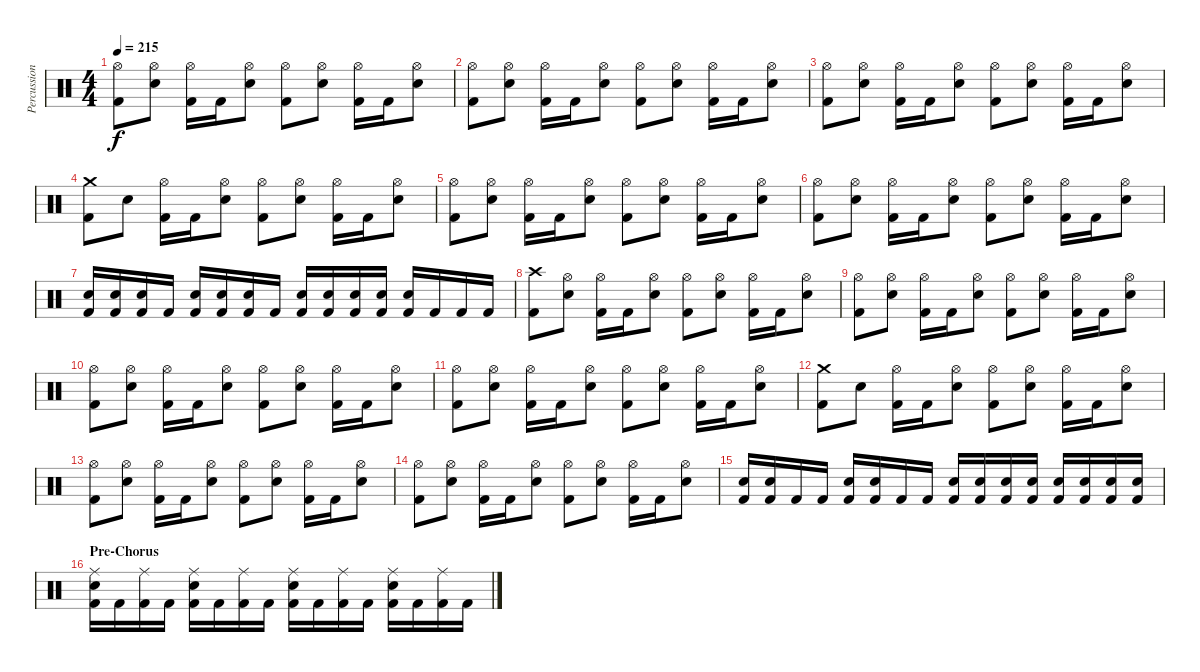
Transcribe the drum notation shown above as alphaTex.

\track ("Percussion" "Percussion") {instrument percussion}
\staff {score}
\articulation defaults
\ts (4 4)
\tempo 215
\clef neutral
\ks c
("Hi-Hat (open)" "Kick (hit) 2").8{dy f} ("Hi-Hat (open)" "Snare (hit) 2").8 ("Hi-Hat (open)" "Kick (hit) 2").16 "Kick (hit) 2".16 ("Hi-Hat (open)" "Snare (hit) 2").8 ("Hi-Hat (open)" "Kick (hit) 2").8 ("Hi-Hat (open)" "Snare (hit) 2").8 ("Hi-Hat (open)" "Kick (hit) 2").16 "Kick (hit) 2".16 ("Hi-Hat (open)" "Snare (hit) 2").8 |
("Hi-Hat (open)" "Kick (hit) 2").8 ("Hi-Hat (open)" "Snare (hit) 2").8 ("Hi-Hat (open)" "Kick (hit) 2").16 "Kick (hit) 2".16 ("Hi-Hat (open)" "Snare (hit) 2").8 ("Hi-Hat (open)" "Kick (hit) 2").8 ("Hi-Hat (open)" "Snare (hit) 2").8 ("Hi-Hat (open)" "Kick (hit) 2").16 "Kick (hit) 2".16 ("Hi-Hat (open)" "Snare (hit) 2").8 |
("Hi-Hat (open)" "Kick (hit) 2").8 ("Hi-Hat (open)" "Snare (hit) 2").8 ("Hi-Hat (open)" "Kick (hit) 2").16 "Kick (hit) 2".16 ("Hi-Hat (open)" "Snare (hit) 2").8 ("Hi-Hat (open)" "Kick (hit) 2").8 ("Hi-Hat (open)" "Snare (hit) 2").8 ("Hi-Hat (open)" "Kick (hit) 2").16 "Kick (hit) 2".16 ("Hi-Hat (open)" "Snare (hit) 2").8 |
("Crash medium (hit)" "Kick (hit) 2").8 "Snare (hit) 2".8 ("Hi-Hat (open)" "Kick (hit) 2").16 "Kick (hit) 2".16 ("Hi-Hat (open)" "Snare (hit) 2").8 ("Hi-Hat (open)" "Kick (hit) 2").8 ("Hi-Hat (open)" "Snare (hit) 2").8 ("Hi-Hat (open)" "Kick (hit) 2").16 "Kick (hit) 2".16 ("Hi-Hat (open)" "Snare (hit) 2").8 |
("Hi-Hat (open)" "Kick (hit) 2").8 ("Hi-Hat (open)" "Snare (hit) 2").8 ("Hi-Hat (open)" "Kick (hit) 2").16 "Kick (hit) 2".16 ("Hi-Hat (open)" "Snare (hit) 2").8 ("Hi-Hat (open)" "Kick (hit) 2").8 ("Hi-Hat (open)" "Snare (hit) 2").8 ("Hi-Hat (open)" "Kick (hit) 2").16 "Kick (hit) 2".16 ("Hi-Hat (open)" "Snare (hit) 2").8 |
("Hi-Hat (open)" "Kick (hit) 2").8 ("Hi-Hat (open)" "Snare (hit) 2").8 ("Hi-Hat (open)" "Kick (hit) 2").16 "Kick (hit) 2".16 ("Hi-Hat (open)" "Snare (hit) 2").8 ("Hi-Hat (open)" "Kick (hit) 2").8 ("Hi-Hat (open)" "Snare (hit) 2").8 ("Hi-Hat (open)" "Kick (hit) 2").16 "Kick (hit) 2".16 ("Hi-Hat (open)" "Snare (hit) 2").8 |
("Snare (hit) 2" "Kick (hit) 2").16 ("Snare (hit) 2" "Kick (hit) 2").16 ("Snare (hit) 2" "Kick (hit) 2").16 "Kick (hit) 2".16 ("Snare (hit) 2" "Kick (hit) 2").16 ("Snare (hit) 2" "Kick (hit) 2").16 ("Snare (hit) 2" "Kick (hit) 2").16 "Kick (hit) 2".16 ("Snare (hit) 2" "Kick (hit) 2").16 ("Snare (hit) 2" "Kick (hit) 2").16 ("Snare (hit) 2" "Kick (hit) 2").16 ("Snare (hit) 2" "Kick (hit) 2").16 ("Snare (hit) 2" "Kick (hit) 2").16 "Kick (hit) 2".16 "Kick (hit) 2".16 "Kick (hit) 2".16 |
("Crash high (hit)" "Kick (hit) 2").8 ("Hi-Hat (open)" "Snare (hit) 2").8 ("Hi-Hat (open)" "Kick (hit) 2").16 "Kick (hit) 2".16 ("Hi-Hat (open)" "Snare (hit) 2").8 ("Hi-Hat (open)" "Kick (hit) 2").8 ("Hi-Hat (open)" "Snare (hit) 2").8 ("Hi-Hat (open)" "Kick (hit) 2").16 "Kick (hit) 2".16 ("Hi-Hat (open)" "Snare (hit) 2").8 |
("Hi-Hat (open)" "Kick (hit) 2").8 ("Hi-Hat (open)" "Snare (hit) 2").8 ("Hi-Hat (open)" "Kick (hit) 2").16 "Kick (hit) 2".16 ("Hi-Hat (open)" "Snare (hit) 2").8 ("Hi-Hat (open)" "Kick (hit) 2").8 ("Hi-Hat (open)" "Snare (hit) 2").8 ("Hi-Hat (open)" "Kick (hit) 2").16 "Kick (hit) 2".16 ("Hi-Hat (open)" "Snare (hit) 2").8 |
("Hi-Hat (open)" "Kick (hit) 2").8 ("Hi-Hat (open)" "Snare (hit) 2").8 ("Hi-Hat (open)" "Kick (hit) 2").16 "Kick (hit) 2".16 ("Hi-Hat (open)" "Snare (hit) 2").8 ("Hi-Hat (open)" "Kick (hit) 2").8 ("Hi-Hat (open)" "Snare (hit) 2").8 ("Hi-Hat (open)" "Kick (hit) 2").16 "Kick (hit) 2".16 ("Hi-Hat (open)" "Snare (hit) 2").8 |
("Hi-Hat (open)" "Kick (hit) 2").8 ("Hi-Hat (open)" "Snare (hit) 2").8 ("Hi-Hat (open)" "Kick (hit) 2").16 "Kick (hit) 2".16 ("Hi-Hat (open)" "Snare (hit) 2").8 ("Hi-Hat (open)" "Kick (hit) 2").8 ("Hi-Hat (open)" "Snare (hit) 2").8 ("Hi-Hat (open)" "Kick (hit) 2").16 "Kick (hit) 2".16 ("Hi-Hat (open)" "Snare (hit) 2").8 |
("Crash medium (hit)" "Kick (hit) 2").8 "Snare (hit) 2".8 ("Hi-Hat (open)" "Kick (hit) 2").16 "Kick (hit) 2".16 ("Hi-Hat (open)" "Snare (hit) 2").8 ("Hi-Hat (open)" "Kick (hit) 2").8 ("Hi-Hat (open)" "Snare (hit) 2").8 ("Hi-Hat (open)" "Kick (hit) 2").16 "Kick (hit) 2".16 ("Hi-Hat (open)" "Snare (hit) 2").8 |
("Hi-Hat (open)" "Kick (hit) 2").8 ("Hi-Hat (open)" "Snare (hit) 2").8 ("Hi-Hat (open)" "Kick (hit) 2").16 "Kick (hit) 2".16 ("Hi-Hat (open)" "Snare (hit) 2").8 ("Hi-Hat (open)" "Kick (hit) 2").8 ("Hi-Hat (open)" "Snare (hit) 2").8 ("Hi-Hat (open)" "Kick (hit) 2").16 "Kick (hit) 2".16 ("Hi-Hat (open)" "Snare (hit) 2").8 |
("Hi-Hat (open)" "Kick (hit) 2").8 ("Hi-Hat (open)" "Snare (hit) 2").8 ("Hi-Hat (open)" "Kick (hit) 2").16 "Kick (hit) 2".16 ("Hi-Hat (open)" "Snare (hit) 2").8 ("Hi-Hat (open)" "Kick (hit) 2").8 ("Hi-Hat (open)" "Snare (hit) 2").8 ("Hi-Hat (open)" "Kick (hit) 2").16 "Kick (hit) 2".16 ("Hi-Hat (open)" "Snare (hit) 2").8 |
("Snare (hit) 2" "Kick (hit) 2").16 ("Snare (hit) 2" "Kick (hit) 2").16 "Kick (hit) 2".16 "Kick (hit) 2".16 ("Snare (hit) 2" "Kick (hit) 2").16 ("Snare (hit) 2" "Kick (hit) 2").16 "Kick (hit) 2".16 "Kick (hit) 2".16 ("Snare (hit) 2" "Kick (hit) 2").16 ("Snare (hit) 2" "Kick (hit) 2").16 ("Snare (hit) 2" "Kick (hit) 2").16 ("Snare (hit) 2" "Kick (hit) 2").16 ("Snare (hit) 2" "Kick (hit) 2").16 ("Snare (hit) 2" "Kick (hit) 2").16 ("Snare (hit) 2" "Kick (hit) 2").16 ("Snare (hit) 2" "Kick (hit) 2").16 |
\section ("" "Pre-Chorus")
("Ride (middle)" "Snare (hit) 2" "Kick (hit) 2").16 "Kick (hit) 2".16 ("Ride (middle)" "Kick (hit) 2").16 "Kick (hit) 2".16 ("Ride (middle)" "Snare (hit) 2" "Kick (hit) 2").16 "Kick (hit) 2".16 ("Ride (middle)" "Kick (hit) 2").16 "Kick (hit) 2".16 ("Ride (middle)" "Snare (hit) 2" "Kick (hit) 2").16 "Kick (hit) 2".16 ("Ride (middle)" "Kick (hit) 2").16 "Kick (hit) 2".16 ("Ride (middle)" "Snare (hit) 2" "Kick (hit) 2").16 "Kick (hit) 2".16 ("Ride (middle)" "Kick (hit) 2").16 "Kick (hit) 2".16
